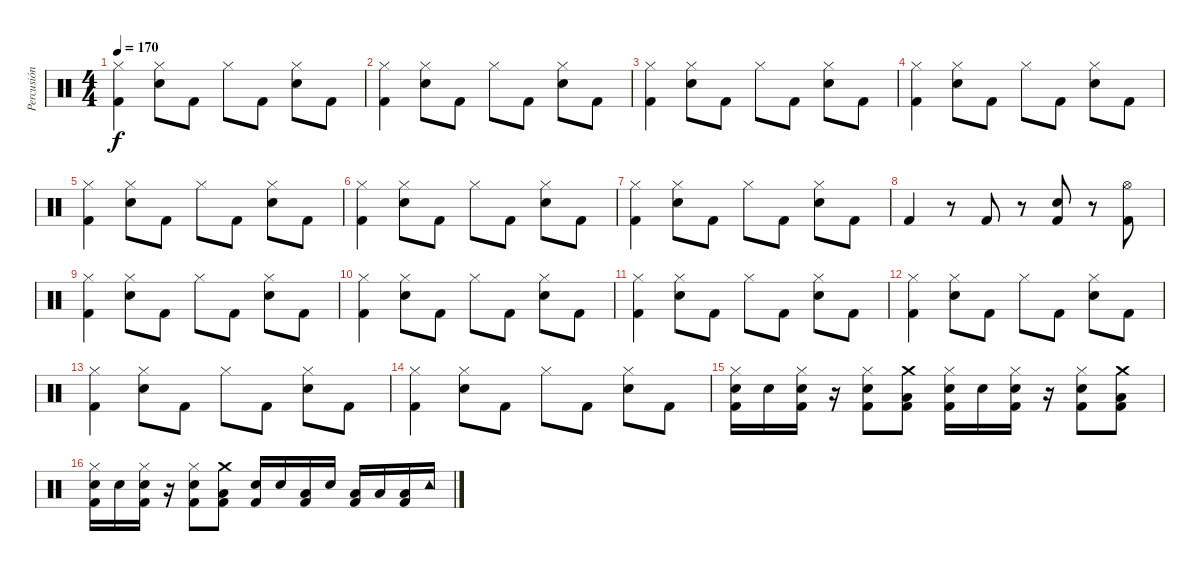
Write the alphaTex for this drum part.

\track ("Percusión" "Percusión") {instrument percussion}
\staff {score}
\articulation defaults
\ts (4 4)
\tempo 170
\clef neutral
\ks c
("Hi-Hat (closed)" "Kick (hit) 2").4{dy f} ("Hi-Hat (closed)" "Snare (hit) 2").8 "Kick (hit) 2".8 "Hi-Hat (closed)".8 "Kick (hit) 2".8 ("Hi-Hat (closed)" "Snare (hit) 2").8 "Kick (hit) 2".8 |
("Hi-Hat (closed)" "Kick (hit) 2").4 ("Hi-Hat (closed)" "Snare (hit) 2").8 "Kick (hit) 2".8 "Hi-Hat (closed)".8 "Kick (hit) 2".8 ("Hi-Hat (closed)" "Snare (hit) 2").8 "Kick (hit) 2".8 |
("Hi-Hat (closed)" "Kick (hit) 2").4 ("Hi-Hat (closed)" "Snare (hit) 2").8 "Kick (hit) 2".8 "Hi-Hat (closed)".8 "Kick (hit) 2".8 ("Hi-Hat (closed)" "Snare (hit) 2").8 "Kick (hit) 2".8 |
("Hi-Hat (closed)" "Kick (hit) 2").4 ("Hi-Hat (closed)" "Snare (hit) 2").8 "Kick (hit) 2".8 "Hi-Hat (closed)".8 "Kick (hit) 2".8 ("Hi-Hat (closed)" "Snare (hit) 2").8 "Kick (hit) 2".8 |
("Hi-Hat (closed)" "Kick (hit) 2").4 ("Hi-Hat (closed)" "Snare (hit) 2").8 "Kick (hit) 2".8 "Hi-Hat (closed)".8 "Kick (hit) 2".8 ("Hi-Hat (closed)" "Snare (hit) 2").8 "Kick (hit) 2".8 |
("Hi-Hat (closed)" "Kick (hit) 2").4 ("Hi-Hat (closed)" "Snare (hit) 2").8 "Kick (hit) 2".8 "Hi-Hat (closed)".8 "Kick (hit) 2".8 ("Hi-Hat (closed)" "Snare (hit) 2").8 "Kick (hit) 2".8 |
("Hi-Hat (closed)" "Kick (hit) 2").4 ("Hi-Hat (closed)" "Snare (hit) 2").8 "Kick (hit) 2".8 "Hi-Hat (closed)".8 "Kick (hit) 2".8 ("Hi-Hat (closed)" "Snare (hit) 2").8 "Kick (hit) 2".8 |
"Kick (hit) 2".4 r.8 "Kick (hit) 2".8 r.8 ("Snare (hit) 2" "Kick (hit) 2").8 r.8 ("Hi-Hat (open)" "Kick (hit) 2").8 |
("Hi-Hat (closed)" "Kick (hit) 2").4 ("Hi-Hat (closed)" "Snare (hit) 2").8 "Kick (hit) 2".8 "Hi-Hat (closed)".8 "Kick (hit) 2".8 ("Hi-Hat (closed)" "Snare (hit) 2").8 "Kick (hit) 2".8 |
("Hi-Hat (closed)" "Kick (hit) 2").4 ("Hi-Hat (closed)" "Snare (hit) 2").8 "Kick (hit) 2".8 "Hi-Hat (closed)".8 "Kick (hit) 2".8 ("Hi-Hat (closed)" "Snare (hit) 2").8 "Kick (hit) 2".8 |
("Hi-Hat (closed)" "Kick (hit) 2").4 ("Hi-Hat (closed)" "Snare (hit) 2").8 "Kick (hit) 2".8 "Hi-Hat (closed)".8 "Kick (hit) 2".8 ("Hi-Hat (closed)" "Snare (hit) 2").8 "Kick (hit) 2".8 |
("Hi-Hat (closed)" "Kick (hit) 2").4 ("Hi-Hat (closed)" "Snare (hit) 2").8 "Kick (hit) 2".8 "Hi-Hat (closed)".8 "Kick (hit) 2".8 ("Hi-Hat (closed)" "Snare (hit) 2").8 "Kick (hit) 2".8 |
("Hi-Hat (closed)" "Kick (hit) 2").4 ("Hi-Hat (closed)" "Snare (hit) 2").8 "Kick (hit) 2".8 "Hi-Hat (closed)".8 "Kick (hit) 2".8 ("Hi-Hat (closed)" "Snare (hit) 2").8 "Kick (hit) 2".8 |
("Hi-Hat (closed)" "Kick (hit) 2").4 ("Hi-Hat (closed)" "Snare (hit) 2").8 "Kick (hit) 2".8 "Hi-Hat (closed)".8 "Kick (hit) 2".8 ("Hi-Hat (closed)" "Snare (hit) 2").8 "Kick (hit) 2".8 |
("Hi-Hat (closed)" "Snare (hit) 2" "Kick (hit) 2").16 "Snare (hit) 2".16 ("Hi-Hat (closed)" "Snare (hit) 2" "Kick (hit) 2").16 r.16 ("Hi-Hat (closed)" "Snare (hit) 2" "Kick (hit) 2").8 ("Crash medium (hit)" "Low Tom (hit)" "Kick (hit) 2").8 ("Hi-Hat (closed)" "Snare (hit) 2" "Kick (hit) 2").16 "Snare (hit) 2".16 ("Hi-Hat (closed)" "Snare (hit) 2" "Kick (hit) 2").16 r.16 ("Hi-Hat (closed)" "Snare (hit) 2" "Kick (hit) 2").8 ("Crash medium (hit)" "Low Tom (hit)" "Kick (hit) 2").8 |
("Hi-Hat (closed)" "Snare (hit) 2" "Kick (hit) 2").16 "Snare (hit) 2".16 ("Hi-Hat (closed)" "Snare (hit) 2" "Kick (hit) 2").16 r.16 ("Hi-Hat (closed)" "Snare (hit) 2" "Kick (hit) 2").8 ("Crash medium (hit)" "Low Tom (hit)" "Kick (hit) 2").8 ("Snare (hit) 2" "Kick (hit) 2").16 "Snare (hit) 2".16 ("Low Tom (hit)" "Kick (hit) 2").16 "Snare (hit) 2".16 ("Low Tom (hit)" "Kick (hit) 2").16 "Low Tom (hit)".16 ("Low Tom (hit)" "Kick (hit) 2").16 "Tambourine (hit)".16
